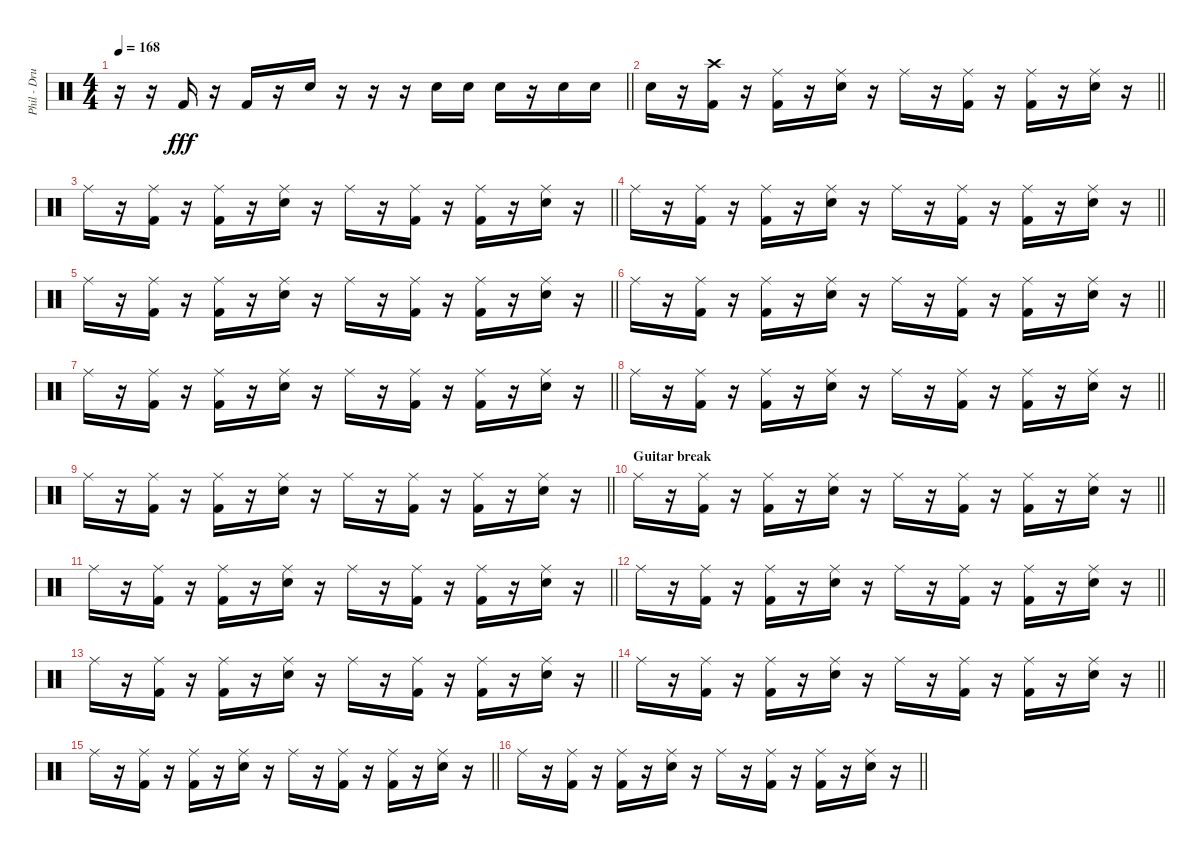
\track ("Phil - Drums" "Phil - Dru") {instrument percussion}
\staff {score}
\articulation defaults
\ts (4 4)
\tempo 168
\clef neutral
\barLineRight lightlight
\ks c
r.16{dy fff} r.16 "Kick (hit) 2".16 r.16 "Kick (hit) 2".16 r.16 "Electric Snare (hit)".16 r.16 r.16 r.16 "Electric Snare (hit)".16 "Electric Snare (hit)".16 "Electric Snare (hit)".16 r.16 "Electric Snare (hit)".16 "Electric Snare (hit)".16 |
\barLineRight lightlight "Electric Snare (hit)".16
r.16 ("Crash high (hit)" "Kick (hit) 2").16 r.16 ("Ride (middle)" "Kick (hit) 2").16 r.16 ("Ride (middle)" "Electric Snare (hit)").16 r.16 "Ride (middle)".16 r.16 ("Ride (middle)" "Kick (hit) 2").16 r.16 ("Ride (middle)" "Kick (hit) 2").16 r.16 ("Ride (middle)" "Electric Snare (hit)").16 r.16 |
\barLineRight lightlight "Ride (middle)".16
r.16 ("Ride (middle)" "Kick (hit) 2").16 r.16 ("Ride (middle)" "Kick (hit) 2").16 r.16 ("Ride (middle)" "Electric Snare (hit)").16 r.16 "Ride (middle)".16 r.16 ("Ride (middle)" "Kick (hit) 2").16 r.16 ("Ride (middle)" "Kick (hit) 2").16 r.16 ("Ride (middle)" "Electric Snare (hit)").16 r.16 |
\barLineRight lightlight "Ride (middle)".16
r.16 ("Ride (middle)" "Kick (hit) 2").16 r.16 ("Ride (middle)" "Kick (hit) 2").16 r.16 ("Ride (middle)" "Electric Snare (hit)").16 r.16 "Ride (middle)".16 r.16 ("Ride (middle)" "Kick (hit) 2").16 r.16 ("Ride (middle)" "Kick (hit) 2").16 r.16 ("Ride (middle)" "Electric Snare (hit)").16 r.16 |
\barLineRight lightlight "Ride (middle)".16
r.16 ("Ride (middle)" "Kick (hit) 2").16 r.16 ("Ride (middle)" "Kick (hit) 2").16 r.16 ("Ride (middle)" "Electric Snare (hit)").16 r.16 "Ride (middle)".16 r.16 ("Ride (middle)" "Kick (hit) 2").16 r.16 ("Ride (middle)" "Kick (hit) 2").16 r.16 ("Ride (middle)" "Electric Snare (hit)").16 r.16 |
\barLineRight lightlight "Ride (middle)".16
r.16 ("Ride (middle)" "Kick (hit) 2").16 r.16 ("Ride (middle)" "Kick (hit) 2").16 r.16 ("Ride (middle)" "Electric Snare (hit)").16 r.16 "Ride (middle)".16 r.16 ("Ride (middle)" "Kick (hit) 2").16 r.16 ("Ride (middle)" "Kick (hit) 2").16 r.16 ("Ride (middle)" "Electric Snare (hit)").16 r.16 |
\barLineRight lightlight "Ride (middle)".16
r.16 ("Ride (middle)" "Kick (hit) 2").16 r.16 ("Ride (middle)" "Kick (hit) 2").16 r.16 ("Ride (middle)" "Electric Snare (hit)").16 r.16 "Ride (middle)".16 r.16 ("Ride (middle)" "Kick (hit) 2").16 r.16 ("Ride (middle)" "Kick (hit) 2").16 r.16 ("Ride (middle)" "Electric Snare (hit)").16 r.16 |
\barLineRight lightlight "Ride (middle)".16
r.16 ("Ride (middle)" "Kick (hit) 2").16 r.16 ("Ride (middle)" "Kick (hit) 2").16 r.16 ("Ride (middle)" "Electric Snare (hit)").16 r.16 "Ride (middle)".16 r.16 ("Ride (middle)" "Kick (hit) 2").16 r.16 ("Ride (middle)" "Kick (hit) 2").16 r.16 ("Ride (middle)" "Electric Snare (hit)").16 r.16 |
\barLineRight lightlight "Ride (middle)".16
r.16 ("Ride (middle)" "Kick (hit) 2").16 r.16 ("Ride (middle)" "Kick (hit) 2").16 r.16 ("Ride (middle)" "Electric Snare (hit)").16 r.16 "Ride (middle)".16 r.16 ("Ride (middle)" "Kick (hit) 2").16 r.16 ("Ride (middle)" "Kick (hit) 2").16 r.16 ("Ride (middle)" "Electric Snare (hit)").16 r.16 |
\section ("" "Guitar break")
\barLineRight lightlight "Ride (middle)".16
r.16 ("Ride (middle)" "Kick (hit) 2").16 r.16 ("Ride (middle)" "Kick (hit) 2").16 r.16 ("Ride (middle)" "Electric Snare (hit)").16 r.16 "Ride (middle)".16 r.16 ("Ride (middle)" "Kick (hit) 2").16 r.16 ("Ride (middle)" "Kick (hit) 2").16 r.16 ("Ride (middle)" "Electric Snare (hit)").16 r.16 |
\barLineRight lightlight "Ride (middle)".16
r.16 ("Ride (middle)" "Kick (hit) 2").16 r.16 ("Ride (middle)" "Kick (hit) 2").16 r.16 ("Ride (middle)" "Electric Snare (hit)").16 r.16 "Ride (middle)".16 r.16 ("Ride (middle)" "Kick (hit) 2").16 r.16 ("Ride (middle)" "Kick (hit) 2").16 r.16 ("Ride (middle)" "Electric Snare (hit)").16 r.16 |
\barLineRight lightlight "Ride (middle)".16
r.16 ("Ride (middle)" "Kick (hit) 2").16 r.16 ("Ride (middle)" "Kick (hit) 2").16 r.16 ("Ride (middle)" "Electric Snare (hit)").16 r.16 "Ride (middle)".16 r.16 ("Ride (middle)" "Kick (hit) 2").16 r.16 ("Ride (middle)" "Kick (hit) 2").16 r.16 ("Ride (middle)" "Electric Snare (hit)").16 r.16 |
\barLineRight lightlight "Ride (middle)".16
r.16 ("Ride (middle)" "Kick (hit) 2").16 r.16 ("Ride (middle)" "Kick (hit) 2").16 r.16 ("Ride (middle)" "Electric Snare (hit)").16 r.16 "Ride (middle)".16 r.16 ("Ride (middle)" "Kick (hit) 2").16 r.16 ("Ride (middle)" "Kick (hit) 2").16 r.16 ("Ride (middle)" "Electric Snare (hit)").16 r.16 |
\barLineRight lightlight "Ride (middle)".16
r.16 ("Ride (middle)" "Kick (hit) 2").16 r.16 ("Ride (middle)" "Kick (hit) 2").16 r.16 ("Ride (middle)" "Electric Snare (hit)").16 r.16 "Ride (middle)".16 r.16 ("Ride (middle)" "Kick (hit) 2").16 r.16 ("Ride (middle)" "Kick (hit) 2").16 r.16 ("Ride (middle)" "Electric Snare (hit)").16 r.16 |
\barLineRight lightlight "Ride (middle)".16
r.16 ("Ride (middle)" "Kick (hit) 2").16 r.16 ("Ride (middle)" "Kick (hit) 2").16 r.16 ("Ride (middle)" "Electric Snare (hit)").16 r.16 "Ride (middle)".16 r.16 ("Ride (middle)" "Kick (hit) 2").16 r.16 ("Ride (middle)" "Kick (hit) 2").16 r.16 ("Ride (middle)" "Electric Snare (hit)").16 r.16 |
\barLineRight lightlight "Ride (middle)".16
r.16 ("Ride (middle)" "Kick (hit) 2").16 r.16 ("Ride (middle)" "Kick (hit) 2").16 r.16 ("Ride (middle)" "Electric Snare (hit)").16 r.16 "Ride (middle)".16 r.16 ("Ride (middle)" "Kick (hit) 2").16 r.16 ("Ride (middle)" "Kick (hit) 2").16 r.16 ("Ride (middle)" "Electric Snare (hit)").16 r.16
